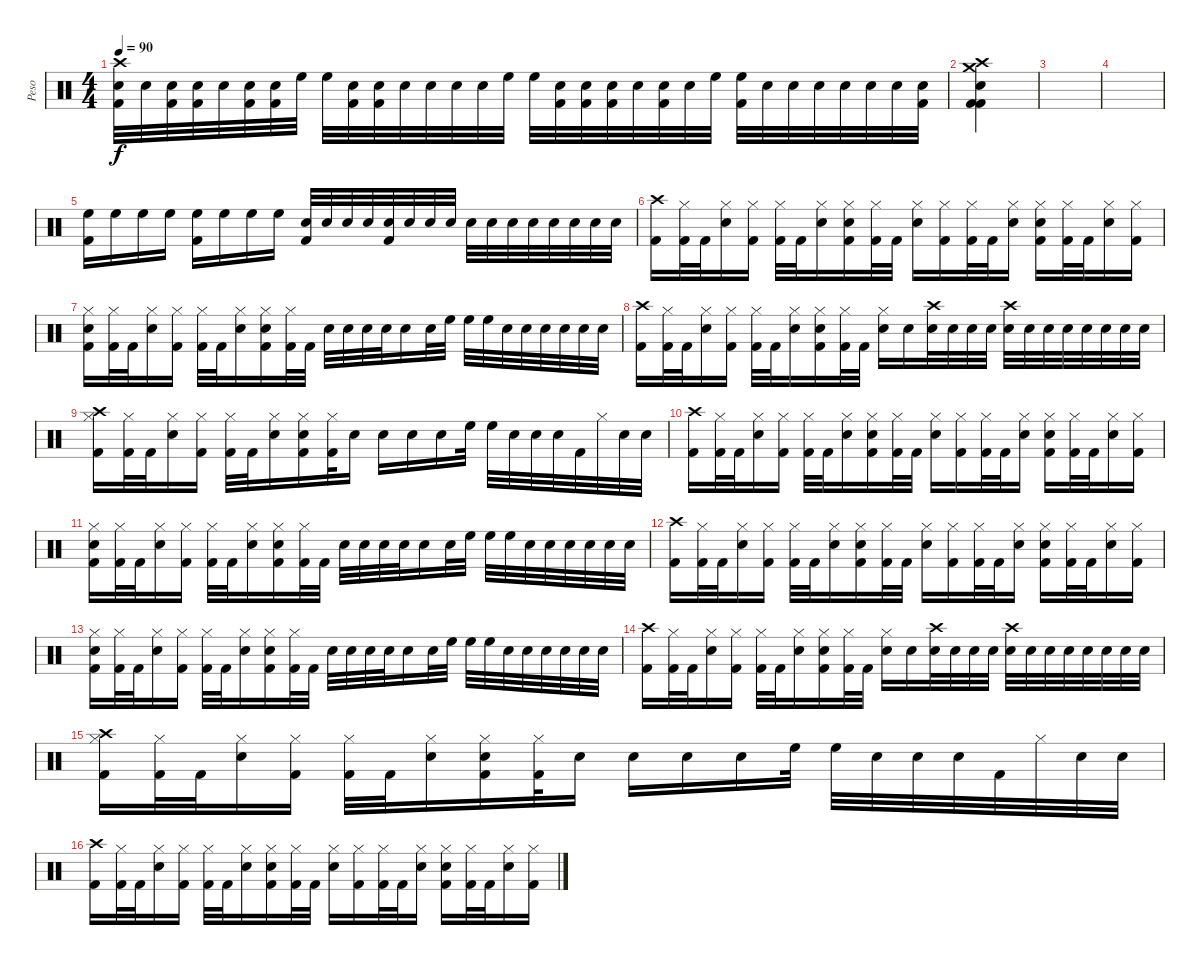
\track ("Peso" "Peso") {instrument percussion}
\staff {score}
\articulation defaults
\ts (4 4)
\tempo 90
\clef neutral
\ks c
("Crash high (hit)" "Snare (hit) 2" "Kick (hit) 2").32{dy f} "Snare (hit) 2".32 ("Snare (hit) 2" "Kick (hit) 2").32 ("Snare (hit) 2" "Kick (hit) 2").32 "Snare (hit) 2".32 ("Snare (hit) 2" "Kick (hit) 2").32 ("Snare (hit) 2" "Kick (hit) 2").32 "High Floor Tom (hit)".32 "High Floor Tom (hit)".32 ("Snare (hit) 2" "Kick (hit) 2").32 ("Snare (hit) 2" "Kick (hit) 2").32 "Snare (hit) 2".32 "Snare (hit) 2".32 "Snare (hit) 2".32 "Snare (hit) 2".32 "High Floor Tom (hit)".32 "High Floor Tom (hit)".32 ("Snare (hit) 2" "Kick (hit) 2").32 ("Snare (hit) 2" "Kick (hit) 2").32 ("Snare (hit) 2" "Kick (hit) 2").32 "Snare (hit) 2".32 ("Snare (hit) 2" "Kick (hit) 2").32 "Snare (hit) 2".32 "High Floor Tom (hit)".32 ("High Floor Tom (hit)" "Kick (hit) 2").32 "Snare (hit) 2".32 "Snare (hit) 2".32 "Snare (hit) 2".32 "Snare (hit) 2".32 "Snare (hit) 2".32 "Snare (hit) 2".32 ("Snare (hit) 2" "Kick (hit) 2").32 |
("Crash medium (hit)" "Crash high (hit)" "Snare (hit) 2" "Kick (hit) 2" "Kick (hit) 2").4 |
|
|
("High Floor Tom (hit)" "Kick (hit) 2").16 "High Floor Tom (hit)".16 "High Floor Tom (hit)".16 "High Floor Tom (hit)".16 ("High Floor Tom (hit)" "Kick (hit) 2").16 "High Floor Tom (hit)".16 "High Floor Tom (hit)".16 "High Floor Tom (hit)".16 ("Snare (hit) 2" "Kick (hit) 2").32 "Snare (hit) 2".32 "Snare (hit) 2".32 "Snare (hit) 2".32 ("Snare (hit) 2" "Kick (hit) 2").32 "Snare (hit) 2".32 "Snare (hit) 2".32 "Snare (hit) 2".32 "Snare (hit) 2".32 "Snare (hit) 2".32 "Snare (hit) 2".32 "Snare (hit) 2".32 "Snare (hit) 2".32 "Snare (hit) 2".32 "Snare (hit) 2".32 "Snare (hit) 2".32 |
("Crash high (hit)" "Kick (hit) 2").16 ("Hi-Hat (closed)" "Kick (hit) 2").32 "Kick (hit) 2".32 ("Hi-Hat (closed)" "Snare (hit) 2").16 ("Hi-Hat (closed)" "Kick (hit) 2").16 ("Hi-Hat (closed)" "Kick (hit) 2").32 "Kick (hit) 2".32 ("Hi-Hat (closed)" "Snare (hit) 2").16 ("Hi-Hat (closed)" "Snare (hit) 2" "Kick (hit) 2").16 ("Hi-Hat (closed)" "Kick (hit) 2").32 "Kick (hit) 2".32 ("Hi-Hat (closed)" "Snare (hit) 2").16 ("Hi-Hat (closed)" "Kick (hit) 2").16 ("Hi-Hat (closed)" "Kick (hit) 2").32 "Kick (hit) 2".32 ("Hi-Hat (closed)" "Snare (hit) 2").16 ("Hi-Hat (closed)" "Snare (hit) 2" "Kick (hit) 2").16 ("Hi-Hat (closed)" "Kick (hit) 2").32 "Kick (hit) 2".32 ("Hi-Hat (closed)" "Snare (hit) 2").16 ("Hi-Hat (closed)" "Kick (hit) 2").16 |
("Hi-Hat (closed)" "Snare (hit) 2" "Kick (hit) 2").16 ("Hi-Hat (closed)" "Kick (hit) 2").32 "Kick (hit) 2".32 ("Hi-Hat (closed)" "Snare (hit) 2").16 ("Hi-Hat (closed)" "Kick (hit) 2").16 ("Hi-Hat (closed)" "Kick (hit) 2").32 "Kick (hit) 2".32 ("Hi-Hat (closed)" "Snare (hit) 2").16 ("Hi-Hat (closed)" "Snare (hit) 2" "Kick (hit) 2").16 ("Hi-Hat (closed)" "Kick (hit) 2").32 "Kick (hit) 2".32 "Snare (hit) 2".32 "Snare (hit) 2".32 "Snare (hit) 2".32 "Snare (hit) 2".32 "Snare (hit) 2".16 "Snare (hit) 2".32 "High Floor Tom (hit)".32 "High Floor Tom (hit)".32 "High Floor Tom (hit)".32 "Snare (hit) 2".32 "Snare (hit) 2".32 "Snare (hit) 2".32 "Snare (hit) 2".32 "Snare (hit) 2".32 "Snare (hit) 2".32 |
("Crash high (hit)" "Kick (hit) 2").16 ("Hi-Hat (closed)" "Kick (hit) 2").32 "Kick (hit) 2".32 ("Hi-Hat (closed)" "Snare (hit) 2").16 ("Hi-Hat (closed)" "Kick (hit) 2").16 ("Hi-Hat (closed)" "Kick (hit) 2").32 "Kick (hit) 2".32 ("Hi-Hat (closed)" "Snare (hit) 2").16 ("Hi-Hat (closed)" "Snare (hit) 2" "Kick (hit) 2").16 ("Hi-Hat (closed)" "Kick (hit) 2").32 "Kick (hit) 2".32 ("Hi-Hat (closed)" "Snare (hit) 2").16 "Snare (hit) 2".16 ("Crash high (hit)" "Snare (hit) 2").32 "Snare (hit) 2".32 "Snare (hit) 2".32 "Snare (hit) 2".32 ("Crash high (hit)" "Snare (hit) 2").32 "Snare (hit) 2".32 "Snare (hit) 2".32 "Snare (hit) 2".32 "Snare (hit) 2".32 "Snare (hit) 2".32 "Snare (hit) 2".32 "Snare (hit) 2".32 |
("Crash high (hit)" "Hi-Hat (closed)" "Kick (hit) 2").16 ("Hi-Hat (closed)" "Kick (hit) 2").32 "Kick (hit) 2".32 ("Hi-Hat (closed)" "Snare (hit) 2").16 ("Hi-Hat (closed)" "Kick (hit) 2").16 ("Hi-Hat (closed)" "Kick (hit) 2").32 "Kick (hit) 2".32 ("Hi-Hat (closed)" "Snare (hit) 2").16 ("Hi-Hat (closed)" "Snare (hit) 2" "Kick (hit) 2").16 ("Hi-Hat (closed)" "Kick (hit) 2").32 "Snare (hit) 2".16 "Snare (hit) 2".16 "Snare (hit) 2".16 "Snare (hit) 2".16 "High Floor Tom (hit)".32 "High Floor Tom (hit)".32 "Snare (hit) 2".32 "Snare (hit) 2".32 "Snare (hit) 2".32 "Kick (hit) 2".32 "Hi-Hat (closed)".32 "Snare (hit) 2".32 "Snare (hit) 2".32 |
("Crash high (hit)" "Kick (hit) 2").16 ("Hi-Hat (closed)" "Kick (hit) 2").32 "Kick (hit) 2".32 ("Hi-Hat (closed)" "Snare (hit) 2").16 ("Hi-Hat (closed)" "Kick (hit) 2").16 ("Hi-Hat (closed)" "Kick (hit) 2").32 "Kick (hit) 2".32 ("Hi-Hat (closed)" "Snare (hit) 2").16 ("Hi-Hat (closed)" "Snare (hit) 2" "Kick (hit) 2").16 ("Hi-Hat (closed)" "Kick (hit) 2").32 "Kick (hit) 2".32 ("Hi-Hat (closed)" "Snare (hit) 2").16 ("Hi-Hat (closed)" "Kick (hit) 2").16 ("Hi-Hat (closed)" "Kick (hit) 2").32 "Kick (hit) 2".32 ("Hi-Hat (closed)" "Snare (hit) 2").16 ("Hi-Hat (closed)" "Snare (hit) 2" "Kick (hit) 2").16 ("Hi-Hat (closed)" "Kick (hit) 2").32 "Kick (hit) 2".32 ("Hi-Hat (closed)" "Snare (hit) 2").16 ("Hi-Hat (closed)" "Kick (hit) 2").16 |
("Hi-Hat (closed)" "Snare (hit) 2" "Kick (hit) 2").16 ("Hi-Hat (closed)" "Kick (hit) 2").32 "Kick (hit) 2".32 ("Hi-Hat (closed)" "Snare (hit) 2").16 ("Hi-Hat (closed)" "Kick (hit) 2").16 ("Hi-Hat (closed)" "Kick (hit) 2").32 "Kick (hit) 2".32 ("Hi-Hat (closed)" "Snare (hit) 2").16 ("Hi-Hat (closed)" "Snare (hit) 2" "Kick (hit) 2").16 ("Hi-Hat (closed)" "Kick (hit) 2").32 "Kick (hit) 2".32 "Snare (hit) 2".32 "Snare (hit) 2".32 "Snare (hit) 2".32 "Snare (hit) 2".32 "Snare (hit) 2".16 "Snare (hit) 2".32 "High Floor Tom (hit)".32 "High Floor Tom (hit)".32 "High Floor Tom (hit)".32 "Snare (hit) 2".32 "Snare (hit) 2".32 "Snare (hit) 2".32 "Snare (hit) 2".32 "Snare (hit) 2".32 "Snare (hit) 2".32 |
("Crash high (hit)" "Kick (hit) 2").16 ("Hi-Hat (closed)" "Kick (hit) 2").32 "Kick (hit) 2".32 ("Hi-Hat (closed)" "Snare (hit) 2").16 ("Hi-Hat (closed)" "Kick (hit) 2").16 ("Hi-Hat (closed)" "Kick (hit) 2").32 "Kick (hit) 2".32 ("Hi-Hat (closed)" "Snare (hit) 2").16 ("Hi-Hat (closed)" "Snare (hit) 2" "Kick (hit) 2").16 ("Hi-Hat (closed)" "Kick (hit) 2").32 "Kick (hit) 2".32 ("Hi-Hat (closed)" "Snare (hit) 2").16 ("Hi-Hat (closed)" "Kick (hit) 2").16 ("Hi-Hat (closed)" "Kick (hit) 2").32 "Kick (hit) 2".32 ("Hi-Hat (closed)" "Snare (hit) 2").16 ("Hi-Hat (closed)" "Snare (hit) 2" "Kick (hit) 2").16 ("Hi-Hat (closed)" "Kick (hit) 2").32 "Kick (hit) 2".32 ("Hi-Hat (closed)" "Snare (hit) 2").16 ("Hi-Hat (closed)" "Kick (hit) 2").16 |
("Hi-Hat (closed)" "Snare (hit) 2" "Kick (hit) 2").16 ("Hi-Hat (closed)" "Kick (hit) 2").32 "Kick (hit) 2".32 ("Hi-Hat (closed)" "Snare (hit) 2").16 ("Hi-Hat (closed)" "Kick (hit) 2").16 ("Hi-Hat (closed)" "Kick (hit) 2").32 "Kick (hit) 2".32 ("Hi-Hat (closed)" "Snare (hit) 2").16 ("Hi-Hat (closed)" "Snare (hit) 2" "Kick (hit) 2").16 ("Hi-Hat (closed)" "Kick (hit) 2").32 "Kick (hit) 2".32 "Snare (hit) 2".32 "Snare (hit) 2".32 "Snare (hit) 2".32 "Snare (hit) 2".32 "Snare (hit) 2".16 "Snare (hit) 2".32 "High Floor Tom (hit)".32 "High Floor Tom (hit)".32 "High Floor Tom (hit)".32 "Snare (hit) 2".32 "Snare (hit) 2".32 "Snare (hit) 2".32 "Snare (hit) 2".32 "Snare (hit) 2".32 "Snare (hit) 2".32 |
("Crash high (hit)" "Kick (hit) 2").16 ("Hi-Hat (closed)" "Kick (hit) 2").32 "Kick (hit) 2".32 ("Hi-Hat (closed)" "Snare (hit) 2").16 ("Hi-Hat (closed)" "Kick (hit) 2").16 ("Hi-Hat (closed)" "Kick (hit) 2").32 "Kick (hit) 2".32 ("Hi-Hat (closed)" "Snare (hit) 2").16 ("Hi-Hat (closed)" "Snare (hit) 2" "Kick (hit) 2").16 ("Hi-Hat (closed)" "Kick (hit) 2").32 "Kick (hit) 2".32 ("Hi-Hat (closed)" "Snare (hit) 2").16 "Snare (hit) 2".16 ("Crash high (hit)" "Snare (hit) 2").32 "Snare (hit) 2".32 "Snare (hit) 2".32 "Snare (hit) 2".32 ("Crash high (hit)" "Snare (hit) 2").32 "Snare (hit) 2".32 "Snare (hit) 2".32 "Snare (hit) 2".32 "Snare (hit) 2".32 "Snare (hit) 2".32 "Snare (hit) 2".32 "Snare (hit) 2".32 |
("Crash high (hit)" "Hi-Hat (closed)" "Kick (hit) 2").16 ("Hi-Hat (closed)" "Kick (hit) 2").32 "Kick (hit) 2".32 ("Hi-Hat (closed)" "Snare (hit) 2").16 ("Hi-Hat (closed)" "Kick (hit) 2").16 ("Hi-Hat (closed)" "Kick (hit) 2").32 "Kick (hit) 2".32 ("Hi-Hat (closed)" "Snare (hit) 2").16 ("Hi-Hat (closed)" "Snare (hit) 2" "Kick (hit) 2").16 ("Hi-Hat (closed)" "Kick (hit) 2").32 "Snare (hit) 2".16 "Snare (hit) 2".16 "Snare (hit) 2".16 "Snare (hit) 2".16 "High Floor Tom (hit)".32 "High Floor Tom (hit)".32 "Snare (hit) 2".32 "Snare (hit) 2".32 "Snare (hit) 2".32 "Kick (hit) 2".32 "Hi-Hat (closed)".32 "Snare (hit) 2".32 "Snare (hit) 2".32 |
("Crash high (hit)" "Kick (hit) 2").16 ("Hi-Hat (closed)" "Kick (hit) 2").32 "Kick (hit) 2".32 ("Hi-Hat (closed)" "Snare (hit) 2").16 ("Hi-Hat (closed)" "Kick (hit) 2").16 ("Hi-Hat (closed)" "Kick (hit) 2").32 "Kick (hit) 2".32 ("Hi-Hat (closed)" "Snare (hit) 2").16 ("Hi-Hat (closed)" "Snare (hit) 2" "Kick (hit) 2").16 ("Hi-Hat (closed)" "Kick (hit) 2").32 "Kick (hit) 2".32 ("Hi-Hat (closed)" "Snare (hit) 2").16 ("Hi-Hat (closed)" "Kick (hit) 2").16 ("Hi-Hat (closed)" "Kick (hit) 2").32 "Kick (hit) 2".32 ("Hi-Hat (closed)" "Snare (hit) 2").16 ("Hi-Hat (closed)" "Snare (hit) 2" "Kick (hit) 2").16 ("Hi-Hat (closed)" "Kick (hit) 2").32 "Kick (hit) 2".32 ("Hi-Hat (closed)" "Snare (hit) 2").16 ("Hi-Hat (closed)" "Kick (hit) 2").16
